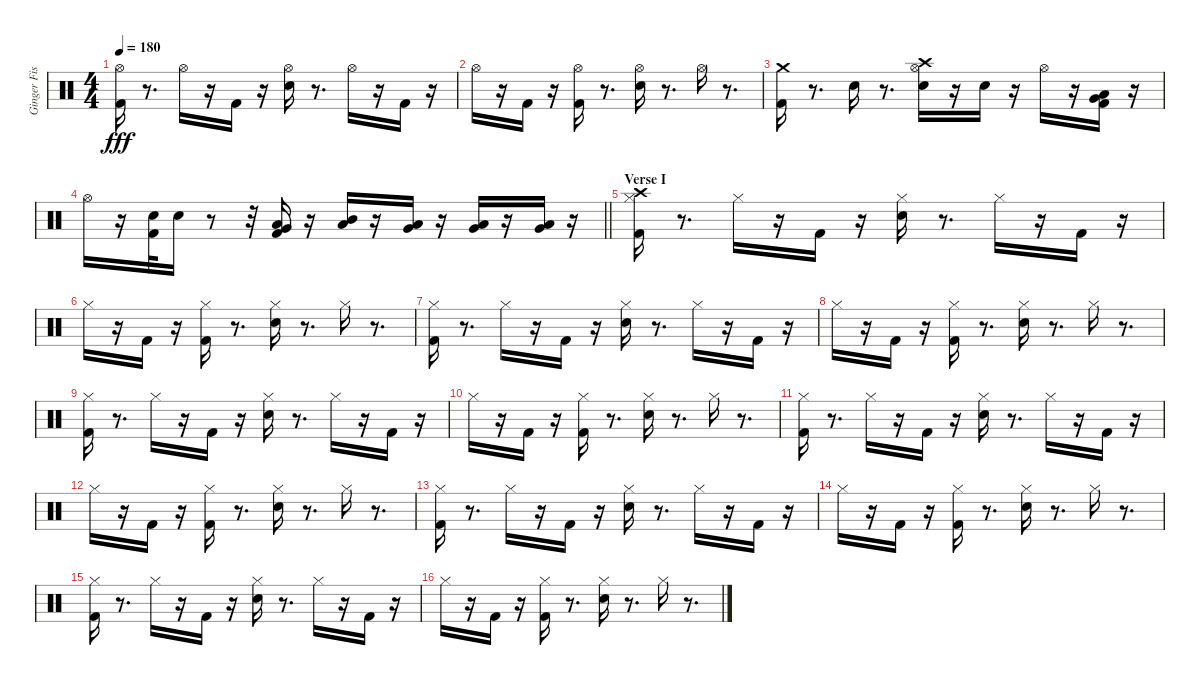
\track ("Ginger Fish" "Ginger Fis") {instrument percussion}
\staff {score}
\articulation defaults
\ts (4 4)
\tempo 180
\clef neutral
\ks c
("Kick (hit) 2" "Hi-Hat (open)").16{dy fff} r.8{d} "Hi-Hat (open)".16 r.16 "Kick (hit) 2".16 r.16 ("Electric Snare (hit)" "Hi-Hat (open)").16 r.8{d} "Hi-Hat (open)".16 r.16 "Kick (hit) 2".16 r.16 |
"Hi-Hat (open)".16 r.16 "Kick (hit) 2".16 r.16 ("Hi-Hat (open)" "Kick (hit) 2").16 r.8{d} ("Hi-Hat (open)" "Electric Snare (hit)").16 r.8{d} "Hi-Hat (open)".16 r.8{d} |
("Crash medium (hit)" "Kick (hit) 2").16 r.8{d} "Electric Snare (hit)".16 r.8{d} ("Crash high (hit)" "Hi-Hat (open)" "Electric Snare (hit)").16 r.16 "Electric Snare (hit)".16 r.16 "Hi-Hat (open)".16 r.16 ("Very Low Tom (hit)" "Low Floor Tom (hit)" "Kick (hit) 2").16 r.16 |
\barLineRight lightlight "Hi-Hat (open)".16
r.16 ("Electric Snare (hit)" "Kick (hit) 2").32 "Electric Snare (hit)".16 r.8 r.32 ("Low Tom (hit)" "Very Low Tom (hit)" "Kick (hit) 2").16 r.16 ("Mid Tom (hit)" "Low Tom (hit)").16 r.16 ("Low Tom (hit)" "Very Low Tom (hit)").16 r.16 ("Low Tom (hit)" "Very Low Tom (hit)").16 r.16 ("Very Low Tom (hit)" "Low Floor Tom (hit)").16 r.16 |
\section ("" "Verse I")
("Kick (hit) 2" "Crash high (hit)" "Hi-Hat (closed)").16 r.8{d} "Hi-Hat (closed)".16 r.16 "Kick (hit) 2".16 r.16 ("Electric Snare (hit)" "Hi-Hat (closed)").16 r.8{d} "Hi-Hat (closed)".16 r.16 "Kick (hit) 2".16 r.16 |
"Hi-Hat (closed)".16 r.16 "Kick (hit) 2".16 r.16 ("Hi-Hat (closed)" "Kick (hit) 2").16 r.8{d} ("Hi-Hat (closed)" "Electric Snare (hit)").16 r.8{d} "Hi-Hat (closed)".16 r.8{d} |
("Kick (hit) 2" "Hi-Hat (closed)").16 r.8{d} "Hi-Hat (closed)".16 r.16 "Kick (hit) 2".16 r.16 ("Electric Snare (hit)" "Hi-Hat (closed)").16 r.8{d} "Hi-Hat (closed)".16 r.16 "Kick (hit) 2".16 r.16 |
"Hi-Hat (closed)".16 r.16 "Kick (hit) 2".16 r.16 ("Hi-Hat (closed)" "Kick (hit) 2").16 r.8{d} ("Hi-Hat (closed)" "Electric Snare (hit)").16 r.8{d} "Hi-Hat (closed)".16 r.8{d} |
("Kick (hit) 2" "Hi-Hat (closed)").16 r.8{d} "Hi-Hat (closed)".16 r.16 "Kick (hit) 2".16 r.16 ("Electric Snare (hit)" "Hi-Hat (closed)").16 r.8{d} "Hi-Hat (closed)".16 r.16 "Kick (hit) 2".16 r.16 |
"Hi-Hat (closed)".16 r.16 "Kick (hit) 2".16 r.16 ("Hi-Hat (closed)" "Kick (hit) 2").16 r.8{d} ("Hi-Hat (closed)" "Electric Snare (hit)").16 r.8{d} "Hi-Hat (closed)".16 r.8{d} |
("Kick (hit) 2" "Hi-Hat (closed)").16 r.8{d} "Hi-Hat (closed)".16 r.16 "Kick (hit) 2".16 r.16 ("Electric Snare (hit)" "Hi-Hat (closed)").16 r.8{d} "Hi-Hat (closed)".16 r.16 "Kick (hit) 2".16 r.16 |
"Hi-Hat (closed)".16 r.16 "Kick (hit) 2".16 r.16 ("Hi-Hat (closed)" "Kick (hit) 2").16 r.8{d} ("Hi-Hat (closed)" "Electric Snare (hit)").16 r.8{d} "Hi-Hat (closed)".16 r.8{d} |
("Kick (hit) 2" "Hi-Hat (closed)").16 r.8{d} "Hi-Hat (closed)".16 r.16 "Kick (hit) 2".16 r.16 ("Electric Snare (hit)" "Hi-Hat (closed)").16 r.8{d} "Hi-Hat (closed)".16 r.16 "Kick (hit) 2".16 r.16 |
"Hi-Hat (closed)".16 r.16 "Kick (hit) 2".16 r.16 ("Hi-Hat (closed)" "Kick (hit) 2").16 r.8{d} ("Hi-Hat (closed)" "Electric Snare (hit)").16 r.8{d} "Hi-Hat (closed)".16 r.8{d} |
("Kick (hit) 2" "Hi-Hat (closed)").16 r.8{d} "Hi-Hat (closed)".16 r.16 "Kick (hit) 2".16 r.16 ("Electric Snare (hit)" "Hi-Hat (closed)").16 r.8{d} "Hi-Hat (closed)".16 r.16 "Kick (hit) 2".16 r.16 |
"Hi-Hat (closed)".16 r.16 "Kick (hit) 2".16 r.16 ("Hi-Hat (closed)" "Kick (hit) 2").16 r.8{d} ("Hi-Hat (closed)" "Electric Snare (hit)").16 r.8{d} "Hi-Hat (closed)".16 r.8{d}
